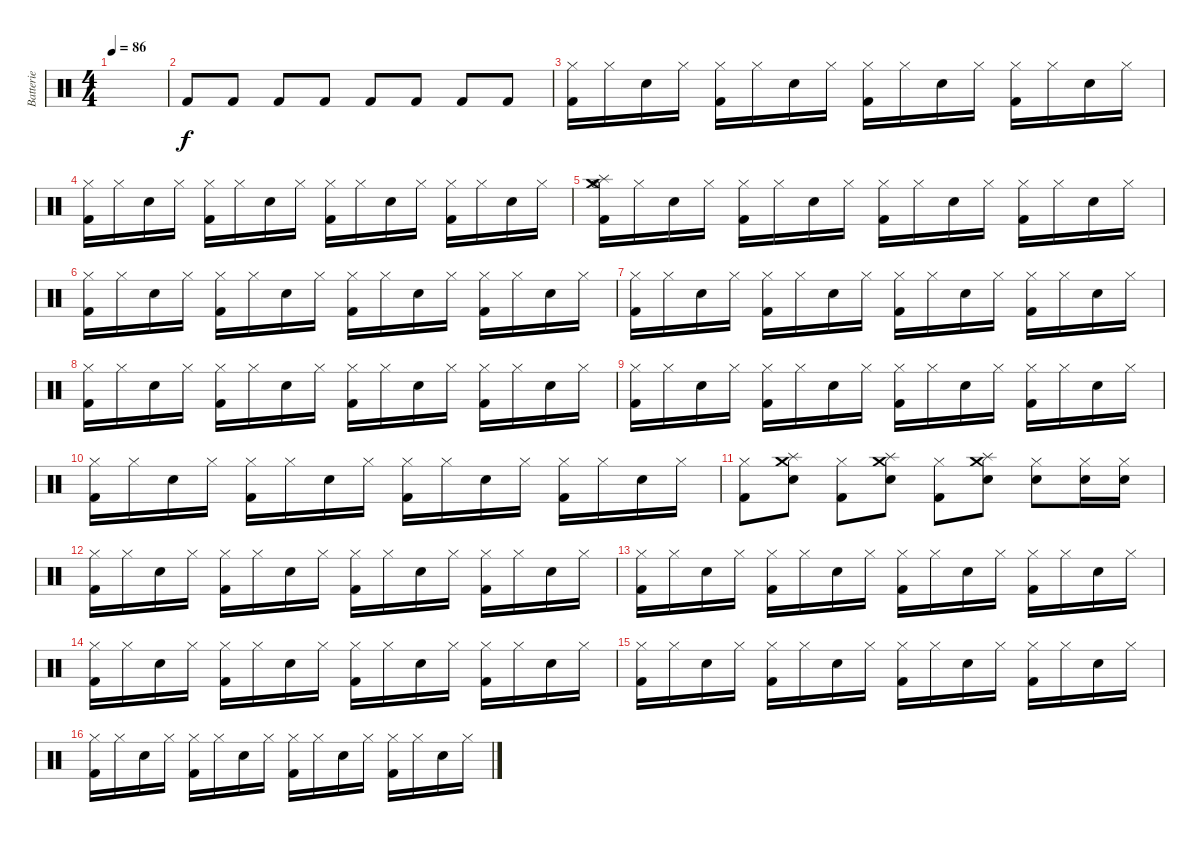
\track ("Batterie" "Batterie") {instrument percussion}
\staff {score}
\articulation defaults
\ts (4 4)
\tempo 86
\clef neutral
\ks c
|
"Kick (hit) 2".8 "Kick (hit) 2".8 "Kick (hit) 2".8 "Kick (hit) 2".8 "Kick (hit) 2".8 "Kick (hit) 2".8 "Kick (hit) 2".8 "Kick (hit) 2".8 |
("Hi-Hat (closed)" "Kick (hit) 2").16 "Hi-Hat (closed)".16 "Snare (hit) 2".16 "Hi-Hat (closed)".16 ("Hi-Hat (closed)" "Kick (hit) 2").16 "Hi-Hat (closed)".16 "Snare (hit) 2".16 "Hi-Hat (closed)".16 ("Hi-Hat (closed)" "Kick (hit) 2").16 "Hi-Hat (closed)".16 "Snare (hit) 2".16 "Hi-Hat (closed)".16 ("Hi-Hat (closed)" "Kick (hit) 2").16 "Hi-Hat (closed)".16 "Snare (hit) 2".16 "Hi-Hat (closed)".16 |
("Hi-Hat (closed)" "Kick (hit) 2").16 "Hi-Hat (closed)".16 "Snare (hit) 2".16 "Hi-Hat (closed)".16 ("Hi-Hat (closed)" "Kick (hit) 2").16 "Hi-Hat (closed)".16 "Snare (hit) 2".16 "Hi-Hat (closed)".16 ("Hi-Hat (closed)" "Kick (hit) 2").16 "Hi-Hat (closed)".16 "Snare (hit) 2".16 "Hi-Hat (closed)".16 ("Hi-Hat (closed)" "Kick (hit) 2").16 "Hi-Hat (closed)".16 "Snare (hit) 2".16 "Hi-Hat (closed)".16 |
("Crash medium (hit)" "Hi-Hat (open)" "Splash (hit)" "Kick (hit) 2").16 "Hi-Hat (closed)".16 "Snare (hit) 2".16 "Hi-Hat (closed)".16 ("Hi-Hat (closed)" "Kick (hit) 2").16 "Hi-Hat (closed)".16 "Snare (hit) 2".16 "Hi-Hat (closed)".16 ("Hi-Hat (closed)" "Kick (hit) 2").16 "Hi-Hat (closed)".16 "Snare (hit) 2".16 "Hi-Hat (closed)".16 ("Hi-Hat (closed)" "Kick (hit) 2").16 "Hi-Hat (closed)".16 "Snare (hit) 2".16 "Hi-Hat (closed)".16 |
("Hi-Hat (closed)" "Kick (hit) 2").16 "Hi-Hat (closed)".16 "Snare (hit) 2".16 "Hi-Hat (closed)".16 ("Hi-Hat (closed)" "Kick (hit) 2").16 "Hi-Hat (closed)".16 "Snare (hit) 2".16 "Hi-Hat (closed)".16 ("Hi-Hat (closed)" "Kick (hit) 2").16 "Hi-Hat (closed)".16 "Snare (hit) 2".16 "Hi-Hat (closed)".16 ("Hi-Hat (closed)" "Kick (hit) 2").16 "Hi-Hat (closed)".16 "Snare (hit) 2".16 "Hi-Hat (closed)".16 |
("Hi-Hat (closed)" "Kick (hit) 2").16 "Hi-Hat (closed)".16 "Snare (hit) 2".16 "Hi-Hat (closed)".16 ("Hi-Hat (closed)" "Kick (hit) 2").16 "Hi-Hat (closed)".16 "Snare (hit) 2".16 "Hi-Hat (closed)".16 ("Hi-Hat (closed)" "Kick (hit) 2").16 "Hi-Hat (closed)".16 "Snare (hit) 2".16 "Hi-Hat (closed)".16 ("Hi-Hat (closed)" "Kick (hit) 2").16 "Hi-Hat (closed)".16 "Snare (hit) 2".16 "Hi-Hat (closed)".16 |
("Hi-Hat (closed)" "Kick (hit) 2").16 "Hi-Hat (closed)".16 "Snare (hit) 2".16 "Hi-Hat (closed)".16 ("Hi-Hat (closed)" "Kick (hit) 2").16 "Hi-Hat (closed)".16 "Snare (hit) 2".16 "Hi-Hat (closed)".16 ("Hi-Hat (closed)" "Kick (hit) 2").16 "Hi-Hat (closed)".16 "Snare (hit) 2".16 "Hi-Hat (closed)".16 ("Hi-Hat (closed)" "Kick (hit) 2").16 "Hi-Hat (closed)".16 "Snare (hit) 2".16 "Hi-Hat (closed)".16 |
("Hi-Hat (closed)" "Kick (hit) 2").16 "Hi-Hat (closed)".16 "Snare (hit) 2".16 "Hi-Hat (closed)".16 ("Hi-Hat (closed)" "Kick (hit) 2").16 "Hi-Hat (closed)".16 "Snare (hit) 2".16 "Hi-Hat (closed)".16 ("Hi-Hat (closed)" "Kick (hit) 2").16 "Hi-Hat (closed)".16 "Snare (hit) 2".16 "Hi-Hat (closed)".16 ("Hi-Hat (closed)" "Kick (hit) 2").16 "Hi-Hat (closed)".16 "Snare (hit) 2".16 "Hi-Hat (closed)".16 |
("Hi-Hat (closed)" "Kick (hit) 2").16 "Hi-Hat (closed)".16 "Snare (hit) 2".16 "Hi-Hat (closed)".16 ("Hi-Hat (closed)" "Kick (hit) 2").16 "Hi-Hat (closed)".16 "Snare (hit) 2".16 "Hi-Hat (closed)".16 ("Hi-Hat (closed)" "Kick (hit) 2").16 "Hi-Hat (closed)".16 "Snare (hit) 2".16 "Hi-Hat (closed)".16 ("Hi-Hat (closed)" "Kick (hit) 2").16 "Hi-Hat (closed)".16 "Snare (hit) 2".16 "Hi-Hat (closed)".16 |
("Hi-Hat (closed)" "Kick (hit) 2").8 ("Snare (hit) 2" "Splash (hit)" "Crash medium (hit)").8 ("Hi-Hat (closed)" "Kick (hit) 2").8 ("Snare (hit) 2" "Splash (hit)" "Crash medium (hit)").8 ("Hi-Hat (closed)" "Kick (hit) 2").8 ("Snare (hit) 2" "Splash (hit)" "Crash medium (hit)").8 ("Hi-Hat (closed)" "Snare (hit) 2").8 ("Hi-Hat (closed)" "Snare (hit) 2").16 ("Hi-Hat (closed)" "Snare (hit) 2").16 |
("Hi-Hat (closed)" "Kick (hit) 2").16 "Hi-Hat (closed)".16 "Snare (hit) 2".16 "Hi-Hat (closed)".16 ("Hi-Hat (closed)" "Kick (hit) 2").16 "Hi-Hat (closed)".16 "Snare (hit) 2".16 "Hi-Hat (closed)".16 ("Hi-Hat (closed)" "Kick (hit) 2").16 "Hi-Hat (closed)".16 "Snare (hit) 2".16 "Hi-Hat (closed)".16 ("Hi-Hat (closed)" "Kick (hit) 2").16 "Hi-Hat (closed)".16 "Snare (hit) 2".16 "Hi-Hat (closed)".16 |
("Hi-Hat (closed)" "Kick (hit) 2").16 "Hi-Hat (closed)".16 "Snare (hit) 2".16 "Hi-Hat (closed)".16 ("Hi-Hat (closed)" "Kick (hit) 2").16 "Hi-Hat (closed)".16 "Snare (hit) 2".16 "Hi-Hat (closed)".16 ("Hi-Hat (closed)" "Kick (hit) 2").16 "Hi-Hat (closed)".16 "Snare (hit) 2".16 "Hi-Hat (closed)".16 ("Hi-Hat (closed)" "Kick (hit) 2").16 "Hi-Hat (closed)".16 "Snare (hit) 2".16 "Hi-Hat (closed)".16 |
("Hi-Hat (closed)" "Kick (hit) 2").16 "Hi-Hat (closed)".16 "Snare (hit) 2".16 "Hi-Hat (closed)".16 ("Hi-Hat (closed)" "Kick (hit) 2").16 "Hi-Hat (closed)".16 "Snare (hit) 2".16 "Hi-Hat (closed)".16 ("Hi-Hat (closed)" "Kick (hit) 2").16 "Hi-Hat (closed)".16 "Snare (hit) 2".16 "Hi-Hat (closed)".16 ("Hi-Hat (closed)" "Kick (hit) 2").16 "Hi-Hat (closed)".16 "Snare (hit) 2".16 "Hi-Hat (closed)".16 |
("Hi-Hat (closed)" "Kick (hit) 2").16 "Hi-Hat (closed)".16 "Snare (hit) 2".16 "Hi-Hat (closed)".16 ("Hi-Hat (closed)" "Kick (hit) 2").16 "Hi-Hat (closed)".16 "Snare (hit) 2".16 "Hi-Hat (closed)".16 ("Hi-Hat (closed)" "Kick (hit) 2").16 "Hi-Hat (closed)".16 "Snare (hit) 2".16 "Hi-Hat (closed)".16 ("Hi-Hat (closed)" "Kick (hit) 2").16 "Hi-Hat (closed)".16 "Snare (hit) 2".16 "Hi-Hat (closed)".16 |
("Hi-Hat (closed)" "Kick (hit) 2").16 "Hi-Hat (closed)".16 "Snare (hit) 2".16 "Hi-Hat (closed)".16 ("Hi-Hat (closed)" "Kick (hit) 2").16 "Hi-Hat (closed)".16 "Snare (hit) 2".16 "Hi-Hat (closed)".16 ("Hi-Hat (closed)" "Kick (hit) 2").16 "Hi-Hat (closed)".16 "Snare (hit) 2".16 "Hi-Hat (closed)".16 ("Hi-Hat (closed)" "Kick (hit) 2").16 "Hi-Hat (closed)".16 "Snare (hit) 2".16 "Hi-Hat (closed)".16
